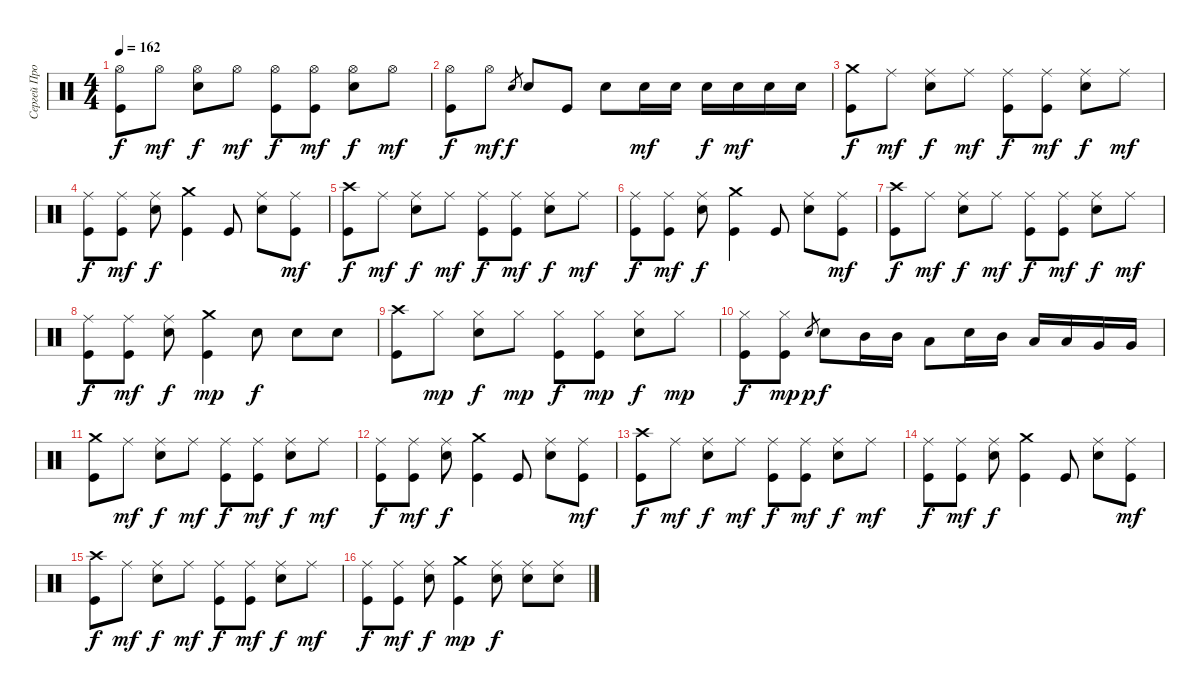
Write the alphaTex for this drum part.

\track ("Сергей Прокофьев" "Сергей Про") {instrument percussion}
\staff {score}
\articulation defaults
\ts (4 4)
\tempo 162
\clef neutral
\ks c
("Hi-Hat (open)" "Kick (hit)").8{dy f} "Hi-Hat (open)".8{dy mf} ("Hi-Hat (open)" "Electric Snare (hit)").8{dy f} "Hi-Hat (open)".8{dy mf} ("Hi-Hat (open)" "Kick (hit)").8{dy f} ("Hi-Hat (open)" "Kick (hit)").8{dy mf} ("Hi-Hat (open)" "Electric Snare (hit)").8{dy f} "Hi-Hat (open)".8{dy mf} |
("Hi-Hat (open)" "Kick (hit)").8{dy f} "Hi-Hat (open)".8{dy mf} "Electric Snare (hit)".8{gr dy f} "Electric Snare (hit)".8 "Kick (hit)".8 "Electric Snare (hit)".8 "Electric Snare (hit)".16{dy mf} "Electric Snare (hit)".16 "Electric Snare (hit)".16{dy f} "Electric Snare (hit)".16{dy mf} "Electric Snare (hit)".16 "Electric Snare (hit)".16 |
("Crash medium (hit)" "Kick (hit)").8{dy f} "Ride (middle)".8{dy mf} ("Ride (middle)" "Electric Snare (hit)").8{dy f} "Ride (middle)".8{dy mf} ("Ride (middle)" "Kick (hit)").8{dy f} ("Ride (middle)" "Kick (hit)").8{dy mf} ("Ride (middle)" "Electric Snare (hit)").8{dy f} "Ride (middle)".8{dy mf} |
("Ride (middle)" "Kick (hit)").8{dy f} ("Ride (middle)" "Kick (hit)").8{dy mf} ("Ride (middle)" "Electric Snare (hit)").8{dy f} ("Crash medium (hit)" "Kick (hit)").4 "Kick (hit)".8 ("Ride (middle)" "Electric Snare (hit)").8 ("Ride (middle)" "Kick (hit)").8{dy mf} |
("Crash high (hit)" "Kick (hit)").8{dy f} "Ride (middle)".8{dy mf} ("Ride (middle)" "Electric Snare (hit)").8{dy f} "Ride (middle)".8{dy mf} ("Ride (middle)" "Kick (hit)").8{dy f} ("Ride (middle)" "Kick (hit)").8{dy mf} ("Ride (middle)" "Electric Snare (hit)").8{dy f} "Ride (middle)".8{dy mf} |
("Ride (middle)" "Kick (hit)").8{dy f} ("Ride (middle)" "Kick (hit)").8{dy mf} ("Ride (middle)" "Electric Snare (hit)").8{dy f} ("Crash medium (hit)" "Kick (hit)").4 "Kick (hit)".8 ("Ride (middle)" "Electric Snare (hit)").8 ("Ride (middle)" "Kick (hit)").8{dy mf} |
("Crash high (hit)" "Kick (hit)").8{dy f} "Ride (middle)".8{dy mf} ("Ride (middle)" "Electric Snare (hit)").8{dy f} "Ride (middle)".8{dy mf} ("Ride (middle)" "Kick (hit)").8{dy f} ("Ride (middle)" "Kick (hit)").8{dy mf} ("Ride (middle)" "Electric Snare (hit)").8{dy f} "Ride (middle)".8{dy mf} |
("Ride (middle)" "Kick (hit)").8{dy f} ("Ride (middle)" "Kick (hit)").8{dy mf} ("Ride (middle)" "Electric Snare (hit)").8{dy f} ("Crash medium (hit)" "Kick (hit)").4{dy mp} "Electric Snare (hit)".8{dy f} "Electric Snare (hit)".8 "Electric Snare (hit)".8 |
("Crash high (hit)" "Kick (hit)").8 "Hi-Hat (closed)".8{dy mp} ("Hi-Hat (closed)" "Electric Snare (hit)").8{dy f} "Hi-Hat (closed)".8{dy mp} ("Hi-Hat (closed)" "Kick (hit)").8{dy f} ("Hi-Hat (closed)" "Kick (hit)").8{dy mp} ("Hi-Hat (closed)" "Electric Snare (hit)").8{dy f} "Hi-Hat (closed)".8{dy mp} |
("Hi-Hat (closed)" "Kick (hit)").8{dy f} ("Hi-Hat (closed)" "Kick (hit)").8{dy mp} "Electric Snare (hit)".8{gr dy p} "Electric Snare (hit)".8{dy f} "Mid Tom (hit)".16 "Mid Tom (hit)".16 "Low Tom (hit)".8 "Electric Snare (hit)".16 "Mid Tom (hit)".16 "Low Tom (hit)".16 "Low Tom (hit)".16 "Very Low Tom (hit)".16 "Very Low Tom (hit)".16 |
("Crash medium (hit)" "Kick (hit)").8 "Ride (middle)".8{dy mf} ("Ride (middle)" "Electric Snare (hit)").8{dy f} "Ride (middle)".8{dy mf} ("Ride (middle)" "Kick (hit)").8{dy f} ("Ride (middle)" "Kick (hit)").8{dy mf} ("Ride (middle)" "Electric Snare (hit)").8{dy f} "Ride (middle)".8{dy mf} |
("Ride (middle)" "Kick (hit)").8{dy f} ("Ride (middle)" "Kick (hit)").8{dy mf} ("Ride (middle)" "Electric Snare (hit)").8{dy f} ("Crash medium (hit)" "Kick (hit)").4 "Kick (hit)".8 ("Ride (middle)" "Electric Snare (hit)").8 ("Ride (middle)" "Kick (hit)").8{dy mf} |
("Crash high (hit)" "Kick (hit)").8{dy f} "Ride (middle)".8{dy mf} ("Ride (middle)" "Electric Snare (hit)").8{dy f} "Ride (middle)".8{dy mf} ("Ride (middle)" "Kick (hit)").8{dy f} ("Ride (middle)" "Kick (hit)").8{dy mf} ("Ride (middle)" "Electric Snare (hit)").8{dy f} "Ride (middle)".8{dy mf} |
("Ride (middle)" "Kick (hit)").8{dy f} ("Ride (middle)" "Kick (hit)").8{dy mf} ("Ride (middle)" "Electric Snare (hit)").8{dy f} ("Crash medium (hit)" "Kick (hit)").4 "Kick (hit)".8 ("Ride (middle)" "Electric Snare (hit)").8 ("Ride (middle)" "Kick (hit)").8{dy mf} |
("Crash high (hit)" "Kick (hit)").8{dy f} "Ride (middle)".8{dy mf} ("Ride (middle)" "Electric Snare (hit)").8{dy f} "Ride (middle)".8{dy mf} ("Ride (middle)" "Kick (hit)").8{dy f} ("Ride (middle)" "Kick (hit)").8{dy mf} ("Ride (middle)" "Electric Snare (hit)").8{dy f} "Ride (middle)".8{dy mf} |
("Ride (middle)" "Kick (hit)").8{dy f} ("Ride (middle)" "Kick (hit)").8{dy mf} ("Ride (middle)" "Electric Snare (hit)").8{dy f} ("Crash medium (hit)" "Kick (hit)").4{dy mp} ("Ride (middle)" "Electric Snare (hit)").8{dy f} ("Ride (middle)" "Electric Snare (hit)").8 ("Ride (middle)" "Electric Snare (hit)").8
